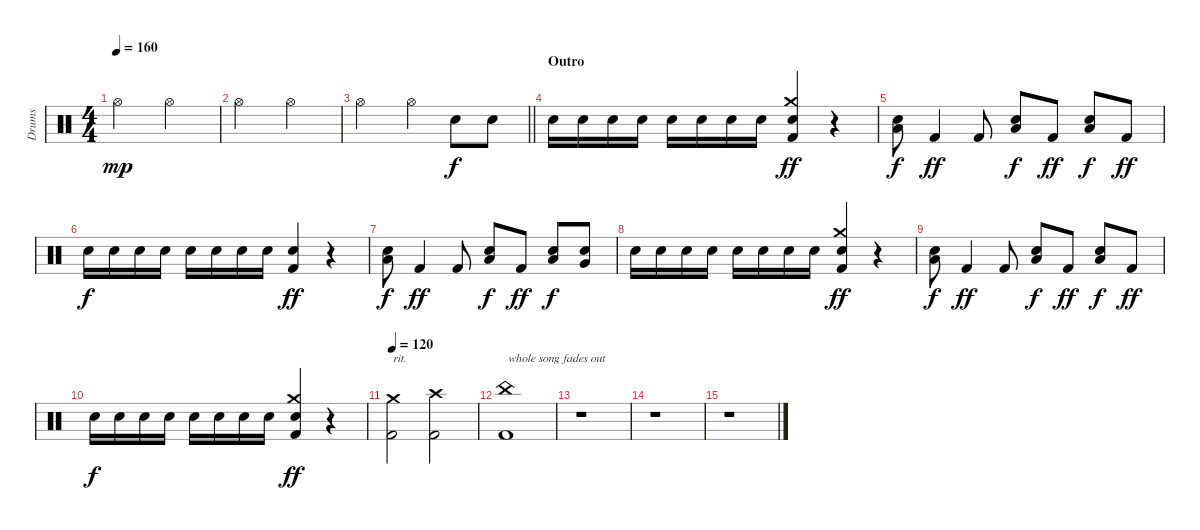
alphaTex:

\track ("Drums" "Drums") {instrument percussion}
\staff {score}
\articulation defaults
\ts (4 4)
\tempo 160
\clef neutral
\ks c "Hi-Hat (open)".2{dy mp} "Hi-Hat (open)".2
|
"Hi-Hat (open)".2 "Hi-Hat (open)".2 |
\barLineRight lightlight "Hi-Hat (open)".2 "Hi-Hat (open)".4 "Electric Snare (hit)".8{dy f} "Electric Snare (hit)".8
|
\section ("" "Outro")
"Electric Snare (hit)".16 "Electric Snare (hit)".16 "Electric Snare (hit)".16 "Electric Snare (hit)".16 "Electric Snare (hit)".16 "Electric Snare (hit)".16 "Electric Snare (hit)".16 "Electric Snare (hit)".16 ("Crash medium (hit)" "Electric Snare (hit)" "Kick (hit) 2").4{dy ff} r.4 |
("Low Tom (hit)" "Electric Snare (hit)").8{dy f} "Kick (hit) 2".4{dy ff} "Kick (hit) 2".8 ("Low Tom (hit)" "Electric Snare (hit)").8{dy f} "Kick (hit) 2".8{dy ff} ("Low Tom (hit)" "Electric Snare (hit)").8{dy f} "Kick (hit) 2".8{dy ff} |
"Electric Snare (hit)".16{dy f} "Electric Snare (hit)".16 "Electric Snare (hit)".16 "Electric Snare (hit)".16 "Electric Snare (hit)".16 "Electric Snare (hit)".16 "Electric Snare (hit)".16 "Electric Snare (hit)".16 ("Electric Snare (hit)" "Kick (hit) 2").4{dy ff} r.4 |
("Low Tom (hit)" "Electric Snare (hit)").8{dy f} "Kick (hit) 2".4{dy ff} "Kick (hit) 2".8 ("Low Tom (hit)" "Electric Snare (hit)").8{dy f} "Kick (hit) 2".8{dy ff} ("Low Tom (hit)" "Electric Snare (hit)").8{dy f} ("Very Low Tom (hit)" "Electric Snare (hit)").8 |
"Electric Snare (hit)".16 "Electric Snare (hit)".16 "Electric Snare (hit)".16 "Electric Snare (hit)".16 "Electric Snare (hit)".16 "Electric Snare (hit)".16 "Electric Snare (hit)".16 "Electric Snare (hit)".16 ("Crash medium (hit)" "Electric Snare (hit)" "Kick (hit) 2").4{dy ff} r.4 |
("Low Tom (hit)" "Electric Snare (hit)").8{dy f} "Kick (hit) 2".4{dy ff} "Kick (hit) 2".8 ("Low Tom (hit)" "Electric Snare (hit)").8{dy f} "Kick (hit) 2".8{dy ff} ("Low Tom (hit)" "Electric Snare (hit)").8{dy f} "Kick (hit) 2".8{dy ff} |
"Electric Snare (hit)".16{dy f} "Electric Snare (hit)".16 "Electric Snare (hit)".16 "Electric Snare (hit)".16 "Electric Snare (hit)".16 "Electric Snare (hit)".16 "Electric Snare (hit)".16 "Electric Snare (hit)".16 ("Crash medium (hit)" "Electric Snare (hit)" "Kick (hit) 2").4{dy ff} r.4 |
\tempo 120
("Crash medium (hit)" "Kick (hit) 2").2{txt "rit."} ("Crash high (hit)" "Kick (hit) 2").2 |
("China (hit)" "Kick (hit) 2").1{txt "whole song fades out" volume 0} |
r.1 |
r.1 |
r.1
